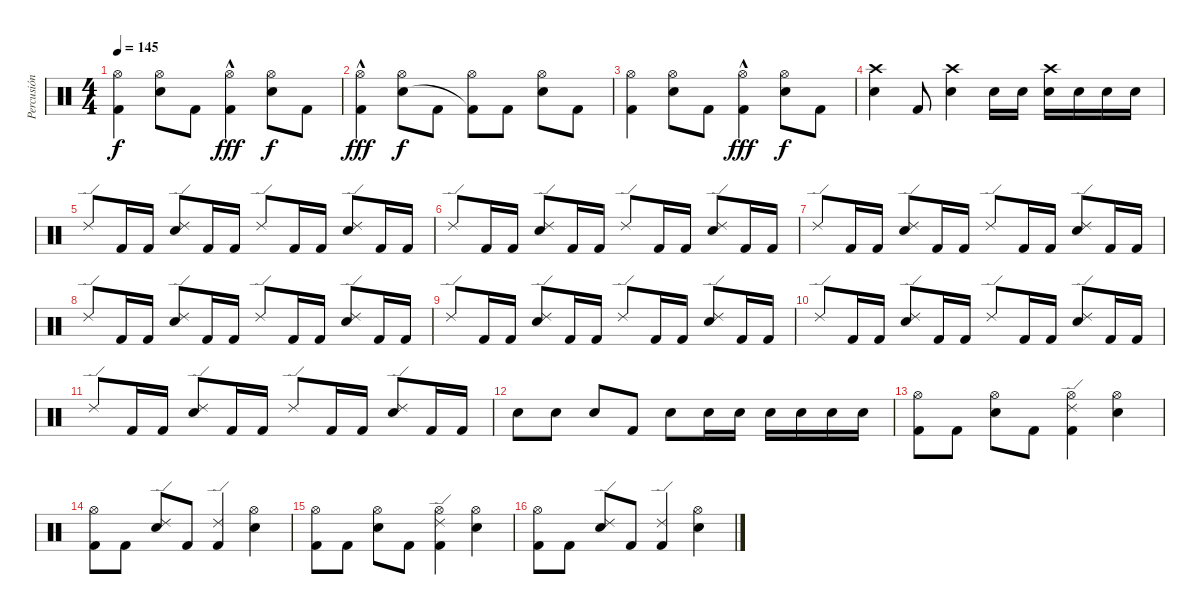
\track ("Percusión" "Percusión") {instrument percussion}
\staff {score}
\articulation defaults
\ts (4 4)
\tempo 145
\clef neutral
\ks c
("Hi-Hat (open)" "Kick (hit) 2").4{dy f} ("Hi-Hat (open)" "Snare (hit) 2").8 "Kick (hit) 2".8 ("Hi-Hat (open)" "Kick (hit) 2"{hac}).4{dy fff} ("Hi-Hat (open)" "Snare (hit) 2").8{dy f} "Kick (hit) 2".8 |
("Hi-Hat (open)" "Kick (hit) 2"{hac}).4{dy fff} ("Hi-Hat (open)" "Snare (hit) 2").8{dy f} "Kick (hit) 2".8 ("Hi-Hat (open)" "Kick (hit) 2"{t}).8 "Kick (hit) 2".8 ("Hi-Hat (open)" "Snare (hit) 2").8 "Kick (hit) 2".8 |
("Hi-Hat (open)" "Kick (hit) 2").4 ("Hi-Hat (open)" "Snare (hit) 2").8 "Kick (hit) 2".8 ("Hi-Hat (open)" "Kick (hit) 2"{hac}).4{dy fff} ("Hi-Hat (open)" "Snare (hit) 2").8{dy f} "Kick (hit) 2".8 |
("Crash high (hit)" "Snare (hit) 2").4 "Kick (hit) 2".8 ("Crash high (hit)" "Snare (hit) 2").4 "Snare (hit) 2".16 "Snare (hit) 2".16 ("Crash high (hit)" "Snare (hit) 2").16 "Snare (hit) 2".16 "Snare (hit) 2".16 "Snare (hit) 2".16 |
"Ride (edge) 2".8 "Kick (hit) 2".16 "Kick (hit) 2".16 ("Ride (edge) 2" "Snare (hit) 2").8 "Kick (hit) 2".16 "Kick (hit) 2".16 "Ride (edge) 2".8 "Kick (hit) 2".16 "Kick (hit) 2".16 ("Ride (edge) 2" "Snare (hit) 2").8 "Kick (hit) 2".16 "Kick (hit) 2".16 |
"Ride (edge) 2".8 "Kick (hit) 2".16 "Kick (hit) 2".16 ("Ride (edge) 2" "Snare (hit) 2").8 "Kick (hit) 2".16 "Kick (hit) 2".16 "Ride (edge) 2".8 "Kick (hit) 2".16 "Kick (hit) 2".16 ("Ride (edge) 2" "Snare (hit) 2").8 "Kick (hit) 2".16 "Kick (hit) 2".16 |
"Ride (edge) 2".8 "Kick (hit) 2".16 "Kick (hit) 2".16 ("Ride (edge) 2" "Snare (hit) 2").8 "Kick (hit) 2".16 "Kick (hit) 2".16 "Ride (edge) 2".8 "Kick (hit) 2".16 "Kick (hit) 2".16 ("Ride (edge) 2" "Snare (hit) 2").8 "Kick (hit) 2".16 "Kick (hit) 2".16 |
"Ride (edge) 2".8 "Kick (hit) 2".16 "Kick (hit) 2".16 ("Ride (edge) 2" "Snare (hit) 2").8 "Kick (hit) 2".16 "Kick (hit) 2".16 "Ride (edge) 2".8 "Kick (hit) 2".16 "Kick (hit) 2".16 ("Ride (edge) 2" "Snare (hit) 2").8 "Kick (hit) 2".16 "Kick (hit) 2".16 |
"Ride (edge) 2".8 "Kick (hit) 2".16 "Kick (hit) 2".16 ("Ride (edge) 2" "Snare (hit) 2").8 "Kick (hit) 2".16 "Kick (hit) 2".16 "Ride (edge) 2".8 "Kick (hit) 2".16 "Kick (hit) 2".16 ("Ride (edge) 2" "Snare (hit) 2").8 "Kick (hit) 2".16 "Kick (hit) 2".16 |
"Ride (edge) 2".8 "Kick (hit) 2".16 "Kick (hit) 2".16 ("Ride (edge) 2" "Snare (hit) 2").8 "Kick (hit) 2".16 "Kick (hit) 2".16 "Ride (edge) 2".8 "Kick (hit) 2".16 "Kick (hit) 2".16 ("Ride (edge) 2" "Snare (hit) 2").8 "Kick (hit) 2".16 "Kick (hit) 2".16 |
"Ride (edge) 2".8 "Kick (hit) 2".16 "Kick (hit) 2".16 ("Ride (edge) 2" "Snare (hit) 2").8 "Kick (hit) 2".16 "Kick (hit) 2".16 "Ride (edge) 2".8 "Kick (hit) 2".16 "Kick (hit) 2".16 ("Ride (edge) 2" "Snare (hit) 2").8 "Kick (hit) 2".16 "Kick (hit) 2".16 |
"Snare (hit) 2".8 "Snare (hit) 2".8 "Snare (hit) 2".8 "Kick (hit) 2".8 "Snare (hit) 2".8 "Snare (hit) 2".16 "Snare (hit) 2".16 "Snare (hit) 2".16 "Snare (hit) 2".16 "Snare (hit) 2".16 "Snare (hit) 2".16 |
("Hi-Hat (open)" "Kick (hit) 2").8 "Kick (hit) 2".8 ("Hi-Hat (open)" "Snare (hit) 2").8 "Kick (hit) 2".8 ("Hi-Hat (open)" "Ride (edge) 2" "Kick (hit) 2").4 ("Hi-Hat (open)" "Snare (hit) 2").4 |
("Hi-Hat (open)" "Kick (hit) 2").8 "Kick (hit) 2".8 ("Ride (edge) 2" "Snare (hit) 2").8 "Kick (hit) 2".8 ("Ride (edge) 2" "Kick (hit) 2").4 ("Hi-Hat (open)" "Snare (hit) 2").4 |
("Hi-Hat (open)" "Kick (hit) 2").8 "Kick (hit) 2".8 ("Hi-Hat (open)" "Snare (hit) 2").8 "Kick (hit) 2".8 ("Hi-Hat (open)" "Ride (edge) 2" "Kick (hit) 2").4 ("Hi-Hat (open)" "Snare (hit) 2").4 |
("Hi-Hat (open)" "Kick (hit) 2").8 "Kick (hit) 2".8 ("Ride (edge) 2" "Snare (hit) 2").8 "Kick (hit) 2".8 ("Ride (edge) 2" "Kick (hit) 2").4 ("Hi-Hat (open)" "Snare (hit) 2").4
